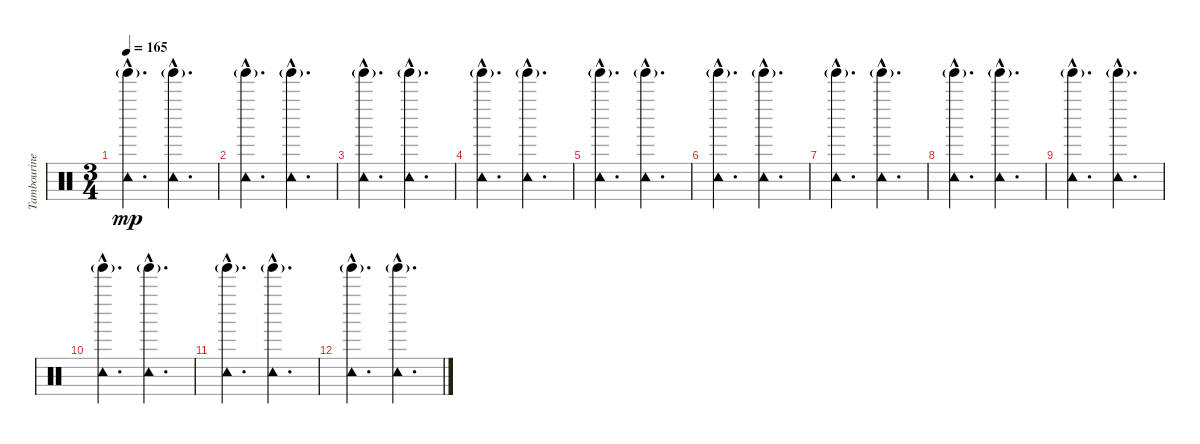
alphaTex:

\track ("Tambourine" "Tambourine") {instrument percussion}
\staff {score}
\articulation defaults
\ts (3 4)
\tempo 165
\clef neutral
\ks c
("Tambourine (hit)"{hac} "Tinkle Bell (hit)"{g}).4{d dy mp} ("Tambourine (hit)"{hac} "Tinkle Bell (hit)"{g}).4{d} |
("Tambourine (hit)"{hac} "Tinkle Bell (hit)"{g}).4{d} ("Tambourine (hit)"{hac} "Tinkle Bell (hit)"{g}).4{d} |
("Tambourine (hit)"{hac} "Tinkle Bell (hit)"{g}).4{d} ("Tambourine (hit)"{hac} "Tinkle Bell (hit)"{g}).4{d} |
("Tambourine (hit)"{hac} "Tinkle Bell (hit)"{g}).4{d} ("Tambourine (hit)"{hac} "Tinkle Bell (hit)"{g}).4{d} |
("Tambourine (hit)"{hac} "Tinkle Bell (hit)"{g}).4{d} ("Tambourine (hit)"{hac} "Tinkle Bell (hit)"{g}).4{d} |
("Tambourine (hit)"{hac} "Tinkle Bell (hit)"{g}).4{d} ("Tambourine (hit)"{hac} "Tinkle Bell (hit)"{g}).4{d} |
("Tambourine (hit)"{hac} "Tinkle Bell (hit)"{g}).4{d} ("Tambourine (hit)"{hac} "Tinkle Bell (hit)"{g}).4{d} |
("Tambourine (hit)"{hac} "Tinkle Bell (hit)"{g}).4{d} ("Tambourine (hit)"{hac} "Tinkle Bell (hit)"{g}).4{d} |
("Tambourine (hit)"{hac} "Tinkle Bell (hit)"{g}).4{d} ("Tambourine (hit)"{hac} "Tinkle Bell (hit)"{g}).4{d} |
("Tambourine (hit)"{hac} "Tinkle Bell (hit)"{g}).4{d} ("Tambourine (hit)"{hac} "Tinkle Bell (hit)"{g}).4{d} |
("Tambourine (hit)"{hac} "Tinkle Bell (hit)"{g}).4{d volume 13} ("Tambourine (hit)"{hac} "Tinkle Bell (hit)"{g}).4{d} |
("Tambourine (hit)"{hac} "Tinkle Bell (hit)"{g}).4{d} ("Tambourine (hit)"{hac} "Tinkle Bell (hit)"{g}).4{d}
